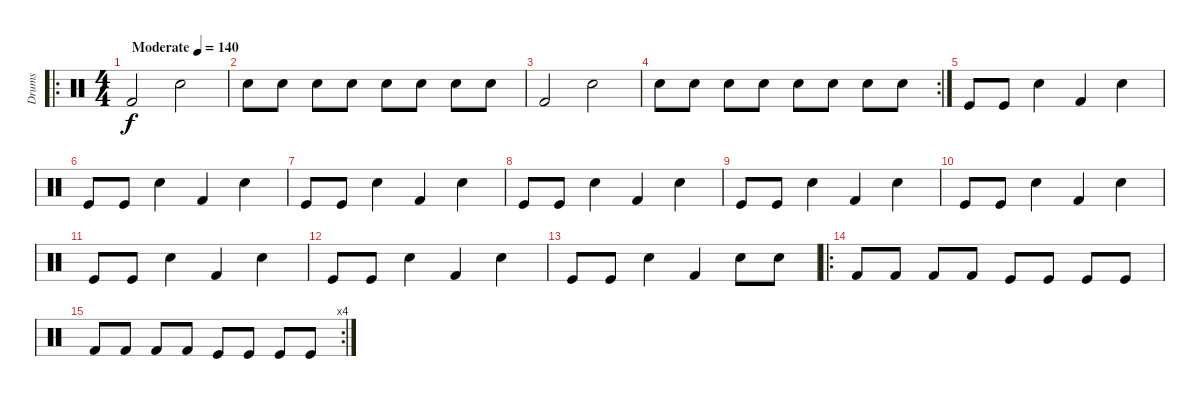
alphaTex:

\track ("Drums" "Drums") {instrument percussion}
\staff {score}
\articulation defaults
\ro
\ts (4 4)
\tempo (140 "Moderate")
\clef neutral
\ks c "Kick (hit) 2".2{dy f} "Snare (hit) 2".2
|
"Electric Snare (hit)".8 "Electric Snare (hit)".8 "Electric Snare (hit)".8 "Electric Snare (hit)".8 "Electric Snare (hit)".8 "Electric Snare (hit)".8 "Electric Snare (hit)".8 "Electric Snare (hit)".8 |
"Kick (hit) 2".2 "Snare (hit) 2".2 |
\rc 2 "Electric Snare (hit)".8 "Electric Snare (hit)".8 "Electric Snare (hit)".8 "Electric Snare (hit)".8 "Electric Snare (hit)".8 "Electric Snare (hit)".8 "Electric Snare (hit)".8 "Electric Snare (hit)".8
|
"Kick (hit)".8 "Kick (hit)".8 "Snare (hit) 2".4 "Kick (hit) 2".4 "Snare (hit) 2".4 |
"Kick (hit)".8 "Kick (hit)".8 "Snare (hit) 2".4 "Kick (hit) 2".4 "Snare (hit) 2".4 |
"Kick (hit)".8 "Kick (hit)".8 "Snare (hit) 2".4 "Kick (hit) 2".4 "Snare (hit) 2".4 |
"Kick (hit)".8 "Kick (hit)".8 "Snare (hit) 2".4 "Kick (hit) 2".4 "Snare (hit) 2".4 |
"Kick (hit)".8 "Kick (hit)".8 "Snare (hit) 2".4 "Kick (hit) 2".4 "Snare (hit) 2".4 |
"Kick (hit)".8 "Kick (hit)".8 "Snare (hit) 2".4 "Kick (hit) 2".4 "Snare (hit) 2".4 |
"Kick (hit)".8 "Kick (hit)".8 "Snare (hit) 2".4 "Kick (hit) 2".4 "Snare (hit) 2".4 |
"Kick (hit)".8 "Kick (hit)".8 "Snare (hit) 2".4 "Kick (hit) 2".4 "Snare (hit) 2".4 |
"Kick (hit)".8 "Kick (hit)".8 "Snare (hit) 2".4 "Kick (hit) 2".4 "Snare (hit) 2".8 "Snare (hit) 2".8 |
\ro "Kick (hit) 2".8 "Kick (hit) 2".8 "Kick (hit) 2".8 "Kick (hit) 2".8 "Kick (hit)".8 "Kick (hit)".8 "Kick (hit)".8 "Kick (hit)".8
|
\rc 4 "Kick (hit) 2".8 "Kick (hit) 2".8 "Kick (hit) 2".8 "Kick (hit) 2".8 "Kick (hit)".8 "Kick (hit)".8 "Kick (hit)".8 "Kick (hit)".8
